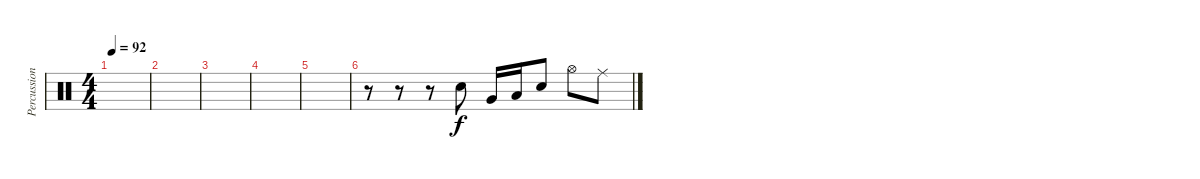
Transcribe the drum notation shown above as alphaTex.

\track ("Percussions" "Percussion") {instrument percussion}
\staff {score}
\articulation defaults
\ts (4 4)
\tempo 92
\clef neutral
\ks c
|
|
|
|
|
r.8 r.8 r.8 "Electric Snare (hit)".8 "Very Low Tom (hit)".16 "Low Tom (hit)".16 "Electric Snare (hit)".8 "Hi-Hat (open)".8 "Ride (middle)".8
